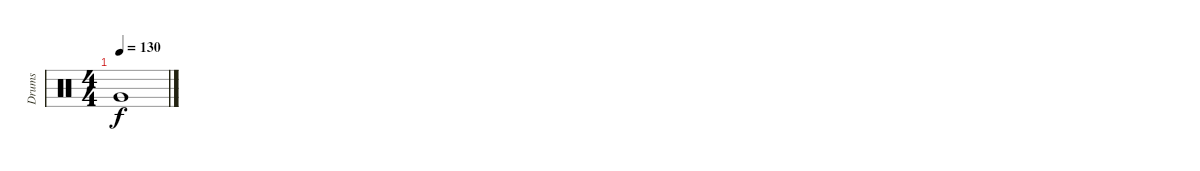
\track ("Drums" "Drums") {instrument percussion}
\staff {score}
\articulation defaults
\ts (4 4)
\tempo 130
\clef neutral
\ks c "Very Low Tom (hit)".1{dy f}
